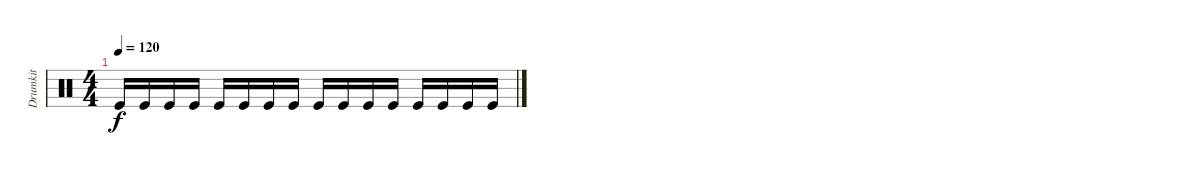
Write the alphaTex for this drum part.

\track ("Drumkit" "Drumkit") {instrument percussion}
\staff {score}
\articulation defaults
\ts (4 4)
\tempo 120
\clef neutral
\ks c "Kick (hit)".16{dy f} "Kick (hit)".16 "Kick (hit)".16 "Kick (hit)".16 "Kick (hit)".16 "Kick (hit)".16 "Kick (hit)".16 "Kick (hit)".16 "Kick (hit)".16 "Kick (hit)".16 "Kick (hit)".16 "Kick (hit)".16 "Kick (hit)".16 "Kick (hit)".16 "Kick (hit)".16 "Kick (hit)".16
